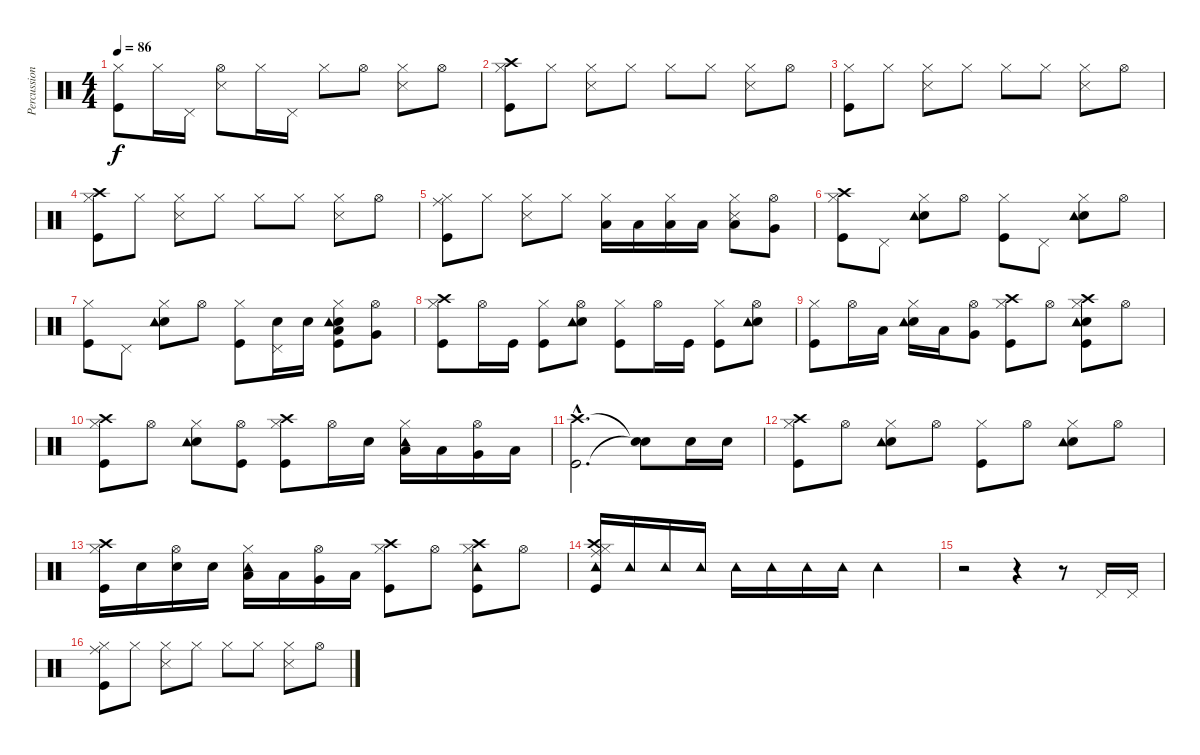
\track ("Percussion" "Percussion") {instrument percussion}
\staff {score}
\articulation defaults
\ts (4 4)
\tempo 86
\clef neutral
\ks c
("Kick (hit)" "Hi-Hat (closed)").8{dy f} "Hi-Hat (closed)".16 "Pedal Hi-Hat (hit)".16 ("Hi-Hat (open)" "Snare (side stick) 3").8 "Hi-Hat (closed)".16 "Pedal Hi-Hat (hit)".16 "Hi-Hat (closed)".8 "Hi-Hat (open)".8 ("Hi-Hat (closed)" "Snare (side stick) 3").8 "Hi-Hat (open)".8 |
("Kick (hit)" "Crash high (hit)" "Hi-Hat (closed)").8 "Hi-Hat (closed)".8 ("Hi-Hat (closed)" "Snare (side stick) 3").8 "Hi-Hat (closed)".8 "Hi-Hat (closed)".8 "Hi-Hat (closed)".8 ("Hi-Hat (closed)" "Snare (side stick) 3").8 "Hi-Hat (open)".8 |
("Kick (hit)" "Hi-Hat (closed)").8 "Hi-Hat (closed)".8 ("Hi-Hat (closed)" "Snare (side stick) 3").8 "Hi-Hat (closed)".8 "Hi-Hat (closed)".8 "Hi-Hat (closed)".8 ("Hi-Hat (closed)" "Snare (side stick) 3").8 "Hi-Hat (open)".8 |
("Kick (hit)" "Crash high (hit)" "Hi-Hat (closed)").8 "Hi-Hat (closed)".8 ("Hi-Hat (closed)" "Snare (side stick) 3").8 "Hi-Hat (closed)".8 "Hi-Hat (closed)".8 "Hi-Hat (closed)".8 ("Hi-Hat (closed)" "Snare (side stick) 3").8 "Hi-Hat (open)".8 |
("Kick (hit)" "Hi-Hat (closed)" "Ride (middle)").8 "Hi-Hat (closed)".8 ("Hi-Hat (closed)" "Snare (side stick) 3").8 "Hi-Hat (closed)".8 ("Hi-Hat (closed)" "Low Tom (hit)").16 "Low Tom (hit)".16 ("Hi-Hat (closed)" "Low Tom (hit)").16 "Low Tom (hit)".16 ("Low Tom (hit)" "Hi-Hat (closed)" "Snare (side stick) 3").8 ("Very Low Tom (hit)" "Hi-Hat (open)").8 |
("Kick (hit)" "Crash high (hit)" "Hi-Hat (closed)").8 "Pedal Hi-Hat (hit)".8 ("Electric Snare (hit)" "Tambourine (hit)" "Hi-Hat (closed)").8 "Hi-Hat (open)".8 ("Kick (hit)" "Hi-Hat (closed)").8 "Pedal Hi-Hat (hit)".8 ("Electric Snare (hit)" "Hi-Hat (closed)" "Tambourine (hit)").8 "Hi-Hat (open)".8 |
("Kick (hit)" "Hi-Hat (closed)").8 "Pedal Hi-Hat (hit)".8 ("Electric Snare (hit)" "Hi-Hat (closed)" "Tambourine (hit)").8 "Hi-Hat (open)".8 ("Hi-Hat (closed)" "Kick (hit)").8 ("Electric Snare (hit)" "Pedal Hi-Hat (hit)").16 "Electric Snare (hit)".16 ("Kick (hit)" "Electric Snare (hit)" "Low Tom (hit)" "Tambourine (hit)" "Hi-Hat (closed)").8 ("Very Low Tom (hit)" "Hi-Hat (open)").8 |
("Kick (hit)" "Crash high (hit)" "Hi-Hat (closed)").8 "Hi-Hat (open)".16 "Kick (hit)".16 ("Kick (hit)" "Hi-Hat (closed)").8 ("Electric Snare (hit)" "Hi-Hat (open)" "Tambourine (hit)").8 ("Kick (hit)" "Hi-Hat (closed)").8 "Hi-Hat (open)".16 "Kick (hit)".16 ("Kick (hit)" "Hi-Hat (closed)").8 ("Electric Snare (hit)" "Hi-Hat (open)" "Tambourine (hit)").8 |
("Kick (hit)" "Hi-Hat (closed)").8 "Hi-Hat (open)".16 "Low Tom (hit)".16 ("Electric Snare (hit)" "Hi-Hat (closed)" "Tambourine (hit)").16 "Low Tom (hit)".16 ("Very Low Tom (hit)" "Hi-Hat (open)").8 ("Hi-Hat (closed)" "Kick (hit)" "Crash high (hit)").8 "Hi-Hat (open)".8 ("Kick (hit)" "Electric Snare (hit)" "Crash high (hit)" "Tambourine (hit)" "Hi-Hat (closed)").8 "Hi-Hat (open)".8 |
("Kick (hit)" "Crash high (hit)" "Hi-Hat (closed)").8 "Hi-Hat (open)".8 ("Electric Snare (hit)" "Tambourine (hit)" "Hi-Hat (closed)").8 ("Kick (hit)" "Hi-Hat (open)").8 ("Kick (hit)" "Hi-Hat (closed)" "Crash high (hit)").8 "Hi-Hat (open)".16 "Electric Snare (hit)".16 ("Hi-Hat (closed)" "Low Tom (hit)" "Tambourine (hit)").16 "Low Tom (hit)".16 ("Very Low Tom (hit)" "Hi-Hat (open)").16 "Low Floor Tom (hit)".16 |
("Kick (hit)"{hac} "Crash high (hit)"{hac}).2{d} ("Snare (hit)"{t} "Snare (hit)"{t}).8 "Electric Snare (hit)".16 "Electric Snare (hit)".16 |
("Kick (hit)" "Crash high (hit)" "Hi-Hat (closed)").8 "Hi-Hat (open)".8 ("Electric Snare (hit)" "Tambourine (hit)" "Hi-Hat (closed)").8 "Hi-Hat (open)".8 ("Kick (hit)" "Hi-Hat (closed)").8 "Hi-Hat (open)".8 ("Electric Snare (hit)" "Hi-Hat (closed)" "Tambourine (hit)").8 "Hi-Hat (open)".8 |
("Kick (hit)" "Hi-Hat (closed)" "Crash high (hit)").16 "Electric Snare (hit)".16 ("Electric Snare (hit)" "Hi-Hat (open)").16 "Electric Snare (hit)".16 ("Hi-Hat (closed)" "Low Tom (hit)" "Tambourine (hit)").16 "Low Tom (hit)".16 ("Very Low Tom (hit)" "Hi-Hat (open)").16 "Low Floor Tom (hit)".16 ("Hi-Hat (closed)" "Kick (hit)" "Crash high (hit)").8 "Hi-Hat (open)".8 ("Kick (hit)" "Crash high (hit)" "Tambourine (hit)" "Hi-Hat (closed)").8 "Hi-Hat (open)".8 |
("Kick (hit)" "Crash high (hit)" "Ride (middle)" "Tambourine (hit)" "Hi-Hat (closed)").16 "Tambourine (hit)".16 "Tambourine (hit)".16 "Tambourine (hit)".16 "Tambourine (hit)".16 "Tambourine (hit)".16 "Tambourine (hit)".16 "Tambourine (hit)".16 "Tambourine (hit)".2 |
r.2 r.4 r.8 "Pedal Hi-Hat (hit)".16 "Pedal Hi-Hat (hit)".16 |
("Kick (hit)" "Ride (middle)" "Hi-Hat (closed)").8 "Hi-Hat (closed)".8 ("Hi-Hat (closed)" "Snare (side stick) 3").8 "Hi-Hat (closed)".8 "Hi-Hat (closed)".8 "Hi-Hat (closed)".8 ("Hi-Hat (closed)" "Snare (side stick) 3").8 "Hi-Hat (open)".8
